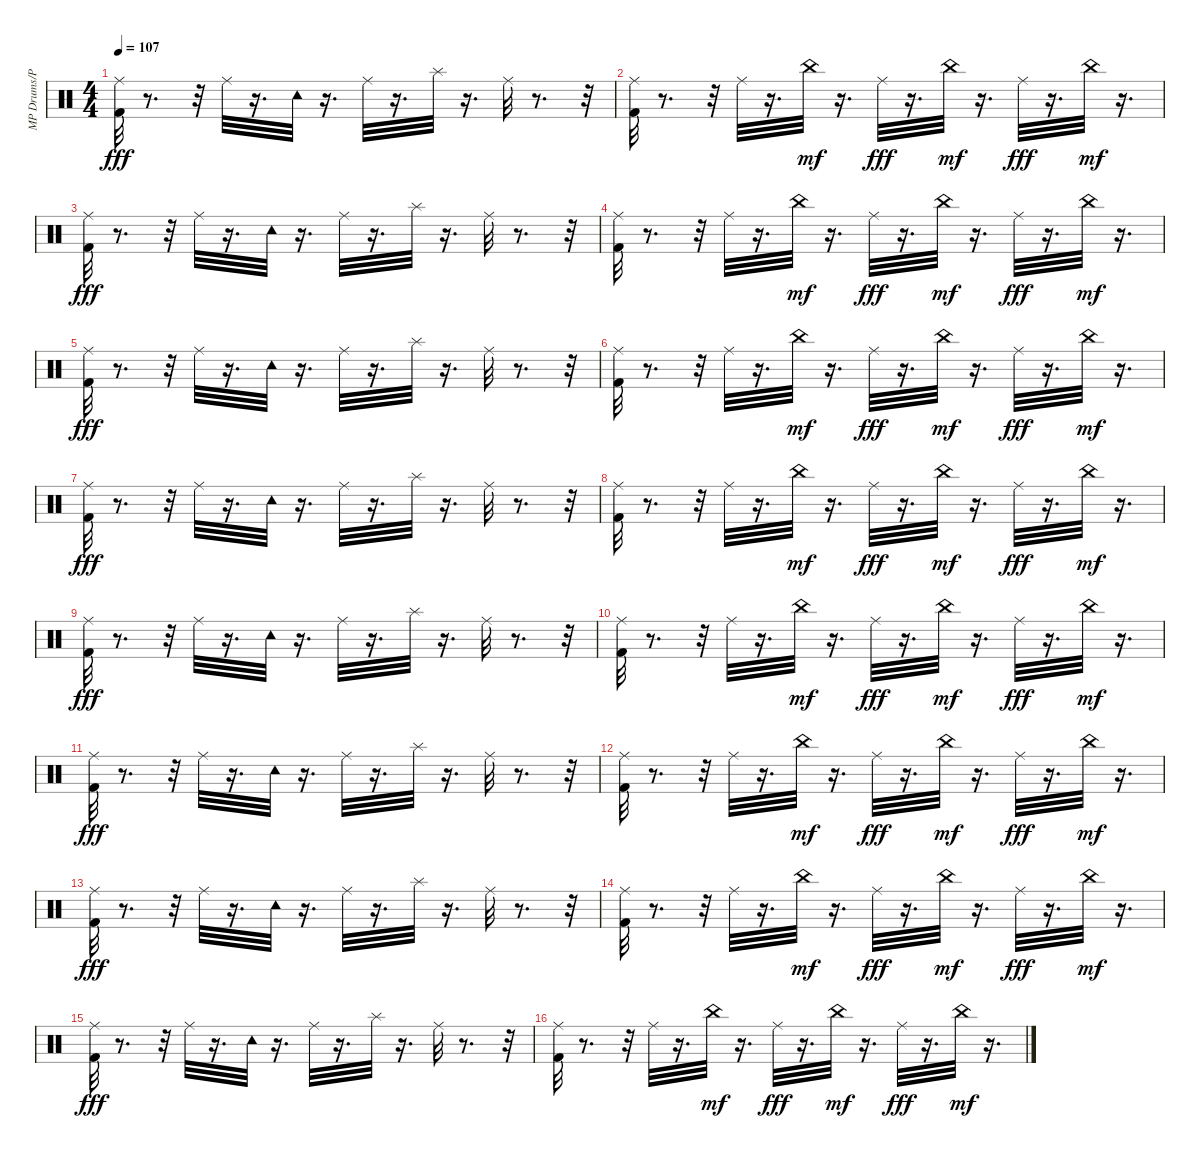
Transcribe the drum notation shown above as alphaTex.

\track ("MP Drums/Percussion" "MP Drums/P") {instrument percussion}
\staff {score}
\articulation defaults
\ts (4 4)
\tempo 107
\clef neutral
\ks c
("Kick (hit) 2" "Ride (middle)").32{dy fff} r.8{d} r.32 "Ride (middle)".32 r.16{d} "Tambourine (hit)".32 r.16{d} "Ride (middle)".32 r.16{d} "Splash (hit)".32 r.16{d} "Ride (middle)".32 r.8{d} r.32 |
("Kick (hit) 2" "Ride (middle)").32 r.8{d} r.32 "Ride (middle)".32 r.16{d} "China (hit)".32{dy mf} r.16{d} "Ride (middle)".32{dy fff} r.16{d} "China (hit)".32{dy mf} r.16{d} "Ride (middle)".32{dy fff} r.16{d} "China (hit)".32{dy mf} r.16{d} |
("Kick (hit) 2" "Ride (middle)").32{dy fff} r.8{d} r.32 "Ride (middle)".32 r.16{d} "Tambourine (hit)".32 r.16{d} "Ride (middle)".32 r.16{d} "Splash (hit)".32 r.16{d} "Ride (middle)".32 r.8{d} r.32 |
("Kick (hit) 2" "Ride (middle)").32 r.8{d} r.32 "Ride (middle)".32 r.16{d} "China (hit)".32{dy mf} r.16{d} "Ride (middle)".32{dy fff} r.16{d} "China (hit)".32{dy mf} r.16{d} "Ride (middle)".32{dy fff} r.16{d} "China (hit)".32{dy mf} r.16{d} |
("Kick (hit) 2" "Ride (middle)").32{dy fff} r.8{d} r.32 "Ride (middle)".32 r.16{d} "Tambourine (hit)".32 r.16{d} "Ride (middle)".32 r.16{d} "Splash (hit)".32 r.16{d} "Ride (middle)".32 r.8{d} r.32 |
("Kick (hit) 2" "Ride (middle)").32 r.8{d} r.32 "Ride (middle)".32 r.16{d} "China (hit)".32{dy mf} r.16{d} "Ride (middle)".32{dy fff} r.16{d} "China (hit)".32{dy mf} r.16{d} "Ride (middle)".32{dy fff} r.16{d} "China (hit)".32{dy mf} r.16{d} |
("Kick (hit) 2" "Ride (middle)").32{dy fff} r.8{d} r.32 "Ride (middle)".32 r.16{d} "Tambourine (hit)".32 r.16{d} "Ride (middle)".32 r.16{d} "Splash (hit)".32 r.16{d} "Ride (middle)".32 r.8{d} r.32 |
("Kick (hit) 2" "Ride (middle)").32 r.8{d} r.32 "Ride (middle)".32 r.16{d} "China (hit)".32{dy mf} r.16{d} "Ride (middle)".32{dy fff} r.16{d} "China (hit)".32{dy mf} r.16{d} "Ride (middle)".32{dy fff} r.16{d} "China (hit)".32{dy mf} r.16{d} |
("Kick (hit) 2" "Ride (middle)").32{dy fff} r.8{d} r.32 "Ride (middle)".32 r.16{d} "Tambourine (hit)".32 r.16{d} "Ride (middle)".32 r.16{d} "Splash (hit)".32 r.16{d} "Ride (middle)".32 r.8{d} r.32 |
("Kick (hit) 2" "Ride (middle)").32 r.8{d} r.32 "Ride (middle)".32 r.16{d} "China (hit)".32{dy mf} r.16{d} "Ride (middle)".32{dy fff} r.16{d} "China (hit)".32{dy mf} r.16{d} "Ride (middle)".32{dy fff} r.16{d} "China (hit)".32{dy mf} r.16{d} |
("Kick (hit) 2" "Ride (middle)").32{dy fff} r.8{d} r.32 "Ride (middle)".32 r.16{d} "Tambourine (hit)".32 r.16{d} "Ride (middle)".32 r.16{d} "Splash (hit)".32 r.16{d} "Ride (middle)".32 r.8{d} r.32 |
("Kick (hit) 2" "Ride (middle)").32 r.8{d} r.32 "Ride (middle)".32 r.16{d} "China (hit)".32{dy mf} r.16{d} "Ride (middle)".32{dy fff} r.16{d} "China (hit)".32{dy mf} r.16{d} "Ride (middle)".32{dy fff} r.16{d} "China (hit)".32{dy mf} r.16{d} |
("Kick (hit) 2" "Ride (middle)").32{dy fff} r.8{d} r.32 "Ride (middle)".32 r.16{d} "Tambourine (hit)".32 r.16{d} "Ride (middle)".32 r.16{d} "Splash (hit)".32 r.16{d} "Ride (middle)".32 r.8{d} r.32 |
("Kick (hit) 2" "Ride (middle)").32 r.8{d} r.32 "Ride (middle)".32 r.16{d} "China (hit)".32{dy mf} r.16{d} "Ride (middle)".32{dy fff} r.16{d} "China (hit)".32{dy mf} r.16{d} "Ride (middle)".32{dy fff} r.16{d} "China (hit)".32{dy mf} r.16{d} |
("Kick (hit) 2" "Ride (middle)").32{dy fff} r.8{d} r.32 "Ride (middle)".32 r.16{d} "Tambourine (hit)".32 r.16{d} "Ride (middle)".32 r.16{d} "Splash (hit)".32 r.16{d} "Ride (middle)".32 r.8{d} r.32 |
("Kick (hit) 2" "Ride (middle)").32 r.8{d} r.32 "Ride (middle)".32 r.16{d} "China (hit)".32{dy mf} r.16{d} "Ride (middle)".32{dy fff} r.16{d} "China (hit)".32{dy mf} r.16{d} "Ride (middle)".32{dy fff} r.16{d} "China (hit)".32{dy mf} r.16{d}
